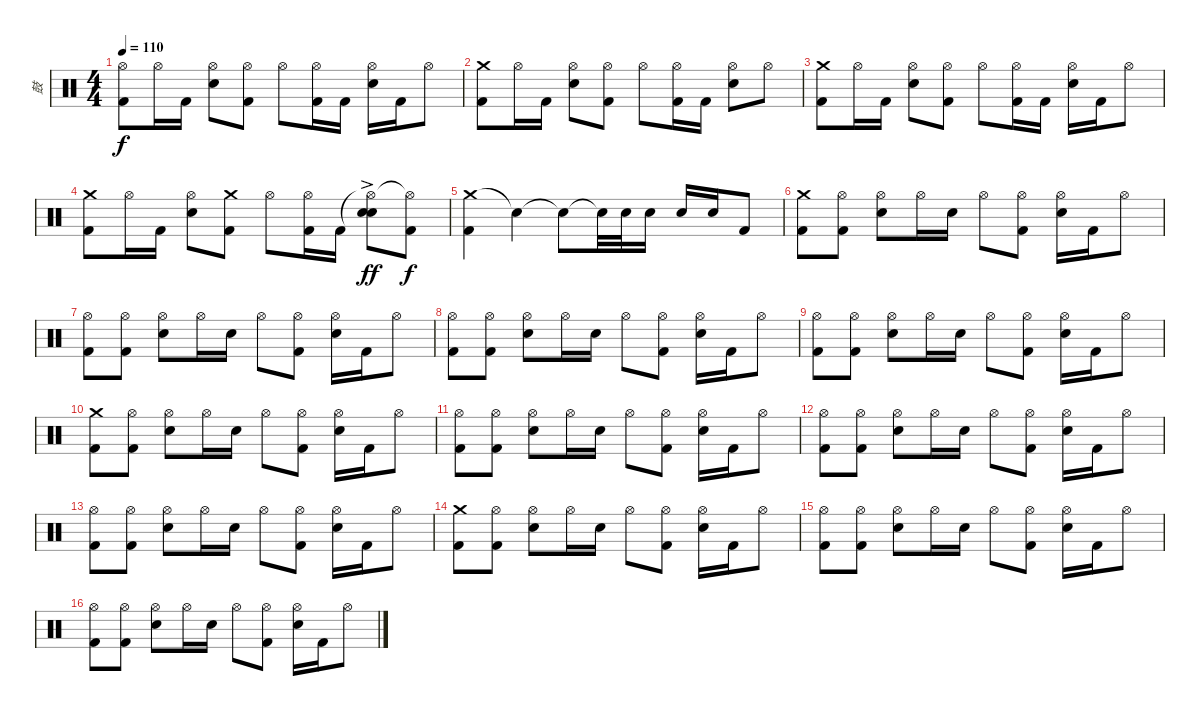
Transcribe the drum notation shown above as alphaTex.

\track ("鼓" "鼓") {instrument percussion}
\staff {score}
\articulation defaults
\ts (4 4)
\tempo 110
\clef neutral
\ks c
("Hi-Hat (open)" "Kick (hit) 2").8{dy f} "Hi-Hat (open)".16 "Kick (hit) 2".16 ("Hi-Hat (open)" "Electric Snare (hit)").8 ("Hi-Hat (open)" "Kick (hit) 2").8 "Hi-Hat (open)".8 ("Hi-Hat (open)" "Kick (hit) 2").16 "Kick (hit) 2".16 ("Hi-Hat (open)" "Electric Snare (hit)").16 "Kick (hit) 2".16 "Hi-Hat (open)".8 |
("Crash medium (hit)" "Kick (hit) 2").8 "Hi-Hat (open)".16 "Kick (hit) 2".16 ("Hi-Hat (open)" "Electric Snare (hit)").8 ("Hi-Hat (open)" "Kick (hit) 2").8 "Hi-Hat (open)".8 ("Hi-Hat (open)" "Kick (hit) 2").16 "Kick (hit) 2".16 ("Hi-Hat (open)" "Electric Snare (hit)").8 "Hi-Hat (open)".8 |
("Crash medium (hit)" "Kick (hit) 2").8 "Hi-Hat (open)".16 "Kick (hit) 2".16 ("Hi-Hat (open)" "Electric Snare (hit)").8 ("Hi-Hat (open)" "Kick (hit) 2").8 "Hi-Hat (open)".8 ("Hi-Hat (open)" "Kick (hit) 2").16 "Kick (hit) 2".16 ("Hi-Hat (open)" "Electric Snare (hit)").16 "Kick (hit) 2".16 "Hi-Hat (open)".8 |
("Crash medium (hit)" "Kick (hit) 2").8 "Hi-Hat (open)".16 "Kick (hit) 2".16 ("Hi-Hat (open)" "Electric Snare (hit)").8 ("Crash medium (hit)" "Kick (hit) 2").8 "Hi-Hat (open)".8 ("Hi-Hat (open)" "Kick (hit) 2").16 "Kick (hit) 2".16 ("Hi-Hat (open)"{t} "Electric Snare (hit)"{ac} "Electric Snare (hit)"{ac}).8{dy ff} ("Hi-Hat (open)"{t} "Kick (hit) 2").8{dy f} |
("Crash medium (hit)" "Kick (hit) 2").4 "Electric Snare (hit)"{t}.4 "Snare (hit)"{t}.8 "Electric Snare (hit)"{t}.32 "Electric Snare (hit)".32 "Electric Snare (hit)".16 "Electric Snare (hit)".16 "Electric Snare (hit)".16 "Kick (hit) 2".8 |
("Crash medium (hit)" "Kick (hit) 2").8 ("Hi-Hat (open)" "Kick (hit) 2").8 ("Hi-Hat (open)" "Electric Snare (hit)").8 "Hi-Hat (open)".16 "Electric Snare (hit)".16 "Hi-Hat (open)".8 ("Hi-Hat (open)" "Kick (hit) 2").8 ("Hi-Hat (open)" "Electric Snare (hit)").16 "Kick (hit) 2".16 "Hi-Hat (open)".8 |
("Hi-Hat (open)" "Kick (hit) 2").8 ("Hi-Hat (open)" "Kick (hit) 2").8 ("Hi-Hat (open)" "Electric Snare (hit)").8 "Hi-Hat (open)".16 "Electric Snare (hit)".16 "Hi-Hat (open)".8 ("Hi-Hat (open)" "Kick (hit) 2").8 ("Hi-Hat (open)" "Electric Snare (hit)").16 "Kick (hit) 2".16 "Hi-Hat (open)".8 |
("Hi-Hat (open)" "Kick (hit) 2").8 ("Hi-Hat (open)" "Kick (hit) 2").8 ("Hi-Hat (open)" "Electric Snare (hit)").8 "Hi-Hat (open)".16 "Electric Snare (hit)".16 "Hi-Hat (open)".8 ("Hi-Hat (open)" "Kick (hit) 2").8 ("Hi-Hat (open)" "Electric Snare (hit)").16 "Kick (hit) 2".16 "Hi-Hat (open)".8 |
("Hi-Hat (open)" "Kick (hit) 2").8 ("Hi-Hat (open)" "Kick (hit) 2").8 ("Hi-Hat (open)" "Electric Snare (hit)").8 "Hi-Hat (open)".16 "Electric Snare (hit)".16 "Hi-Hat (open)".8 ("Hi-Hat (open)" "Kick (hit) 2").8 ("Hi-Hat (open)" "Electric Snare (hit)").16 "Kick (hit) 2".16 "Hi-Hat (open)".8 |
("Crash medium (hit)" "Kick (hit) 2").8 ("Hi-Hat (open)" "Kick (hit) 2").8 ("Hi-Hat (open)" "Electric Snare (hit)").8 "Hi-Hat (open)".16 "Electric Snare (hit)".16 "Hi-Hat (open)".8 ("Hi-Hat (open)" "Kick (hit) 2").8 ("Hi-Hat (open)" "Electric Snare (hit)").16 "Kick (hit) 2".16 "Hi-Hat (open)".8 |
("Hi-Hat (open)" "Kick (hit) 2").8 ("Hi-Hat (open)" "Kick (hit) 2").8 ("Hi-Hat (open)" "Electric Snare (hit)").8 "Hi-Hat (open)".16 "Electric Snare (hit)".16 "Hi-Hat (open)".8 ("Hi-Hat (open)" "Kick (hit) 2").8 ("Hi-Hat (open)" "Electric Snare (hit)").16 "Kick (hit) 2".16 "Hi-Hat (open)".8 |
("Hi-Hat (open)" "Kick (hit) 2").8 ("Hi-Hat (open)" "Kick (hit) 2").8 ("Hi-Hat (open)" "Electric Snare (hit)").8 "Hi-Hat (open)".16 "Electric Snare (hit)".16 "Hi-Hat (open)".8 ("Hi-Hat (open)" "Kick (hit) 2").8 ("Hi-Hat (open)" "Electric Snare (hit)").16 "Kick (hit) 2".16 "Hi-Hat (open)".8 |
("Hi-Hat (open)" "Kick (hit) 2").8 ("Hi-Hat (open)" "Kick (hit) 2").8 ("Hi-Hat (open)" "Electric Snare (hit)").8 "Hi-Hat (open)".16 "Electric Snare (hit)".16 "Hi-Hat (open)".8 ("Hi-Hat (open)" "Kick (hit) 2").8 ("Hi-Hat (open)" "Electric Snare (hit)").16 "Kick (hit) 2".16 "Hi-Hat (open)".8 |
("Crash medium (hit)" "Kick (hit) 2").8 ("Hi-Hat (open)" "Kick (hit) 2").8 ("Hi-Hat (open)" "Electric Snare (hit)").8 "Hi-Hat (open)".16 "Electric Snare (hit)".16 "Hi-Hat (open)".8 ("Hi-Hat (open)" "Kick (hit) 2").8 ("Hi-Hat (open)" "Electric Snare (hit)").16 "Kick (hit) 2".16 "Hi-Hat (open)".8 |
("Hi-Hat (open)" "Kick (hit) 2").8 ("Hi-Hat (open)" "Kick (hit) 2").8 ("Hi-Hat (open)" "Electric Snare (hit)").8 "Hi-Hat (open)".16 "Electric Snare (hit)".16 "Hi-Hat (open)".8 ("Hi-Hat (open)" "Kick (hit) 2").8 ("Hi-Hat (open)" "Electric Snare (hit)").16 "Kick (hit) 2".16 "Hi-Hat (open)".8 |
("Hi-Hat (open)" "Kick (hit) 2").8 ("Hi-Hat (open)" "Kick (hit) 2").8 ("Hi-Hat (open)" "Electric Snare (hit)").8 "Hi-Hat (open)".16 "Electric Snare (hit)".16 "Hi-Hat (open)".8 ("Hi-Hat (open)" "Kick (hit) 2").8 ("Hi-Hat (open)" "Electric Snare (hit)").16 "Kick (hit) 2".16 "Hi-Hat (open)".8
